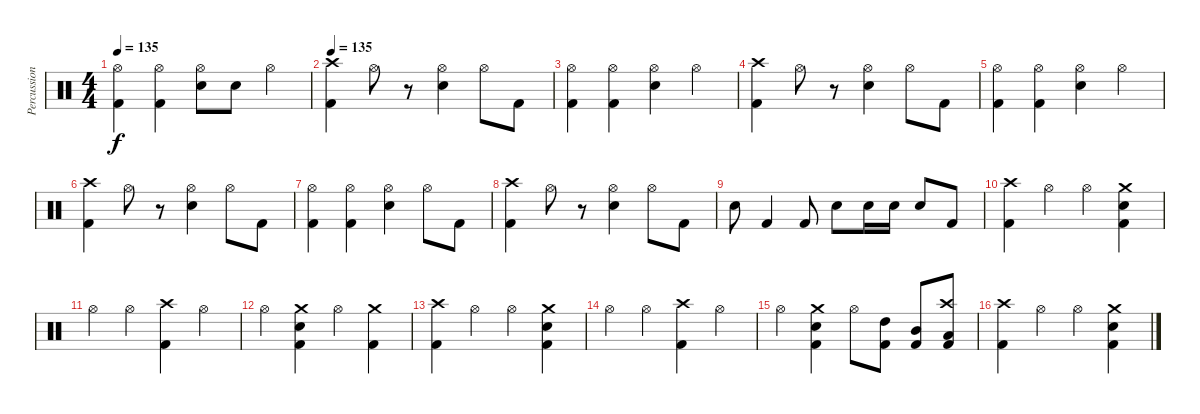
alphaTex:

\track ("Percussion" "Percussion") {instrument percussion}
\staff {score}
\articulation defaults
\ts (4 4)
\tempo 135
\clef neutral
\ks c
("Hi-Hat (open)" "Kick (hit) 2").4{dy f} ("Hi-Hat (open)" "Kick (hit) 2").4 ("Hi-Hat (open)" "Snare (hit) 2").8 "Snare (hit) 2".8 "Hi-Hat (open)".4 |
\tempo 135
("Crash high (hit)" "Kick (hit) 2").4 "Hi-Hat (open)".8 r.8 ("Hi-Hat (open)" "Snare (hit) 2").4 "Hi-Hat (open)".8 "Kick (hit) 2".8 |
("Hi-Hat (open)" "Kick (hit) 2").4 ("Hi-Hat (open)" "Kick (hit) 2").4 ("Hi-Hat (open)" "Snare (hit) 2").4 "Hi-Hat (open)".4 |
("Crash high (hit)" "Kick (hit) 2").4 "Hi-Hat (open)".8 r.8 ("Hi-Hat (open)" "Snare (hit) 2").4 "Hi-Hat (open)".8 "Kick (hit) 2".8 |
("Hi-Hat (open)" "Kick (hit) 2").4 ("Hi-Hat (open)" "Kick (hit) 2").4 ("Hi-Hat (open)" "Snare (hit) 2").4 "Hi-Hat (open)".4 |
("Crash high (hit)" "Kick (hit) 2").4 "Hi-Hat (open)".8 r.8 ("Hi-Hat (open)" "Snare (hit) 2").4 "Hi-Hat (open)".8 "Kick (hit) 2".8 |
("Hi-Hat (open)" "Kick (hit) 2").4 ("Hi-Hat (open)" "Kick (hit) 2").4 ("Hi-Hat (open)" "Snare (hit) 2").4 "Hi-Hat (open)".8 "Kick (hit) 2".8 |
("Crash high (hit)" "Kick (hit) 2").4 "Hi-Hat (open)".8 r.8 ("Hi-Hat (open)" "Snare (hit) 2").4 "Hi-Hat (open)".8 "Kick (hit) 2".8 |
"Snare (hit) 2".8 "Kick (hit) 2".4 "Kick (hit) 2".8 "Snare (hit) 2".8 "Snare (hit) 2".16 "Snare (hit) 2".16 "Snare (hit) 2".8 "Kick (hit) 2".8 |
("Crash high (hit)" "Kick (hit) 2").4 "Hi-Hat (open)".4 "Hi-Hat (open)".4 ("Crash medium (hit)" "Snare (hit) 2" "Kick (hit) 2").4 |
"Hi-Hat (open)".4 "Hi-Hat (open)".4 ("Crash high (hit)" "Kick (hit) 2").4 "Hi-Hat (open)".4 |
"Hi-Hat (open)".4 ("Crash medium (hit)" "Snare (hit) 2" "Kick (hit) 2").4 "Hi-Hat (open)".4 ("Crash medium (hit)" "Kick (hit) 2").4 |
("Crash high (hit)" "Kick (hit) 2").4 "Hi-Hat (open)".4 "Hi-Hat (open)".4 ("Crash medium (hit)" "Snare (hit) 2" "Kick (hit) 2").4 |
"Hi-Hat (open)".4 "Hi-Hat (open)".4 ("Crash high (hit)" "Kick (hit) 2").4 "Hi-Hat (open)".4 |
"Hi-Hat (open)".4 ("Crash medium (hit)" "Snare (hit) 2" "Kick (hit) 2").4 "Hi-Hat (open)".8 ("High Tom (hit)" "Kick (hit) 2").8 ("Mid Tom (hit)" "Kick (hit) 2").8 ("Crash high (hit)" "Low Tom (hit)" "Kick (hit) 2").8 |
("Crash high (hit)" "Kick (hit) 2").4 "Hi-Hat (open)".4 "Hi-Hat (open)".4 ("Crash medium (hit)" "Snare (hit) 2" "Kick (hit) 2").4
